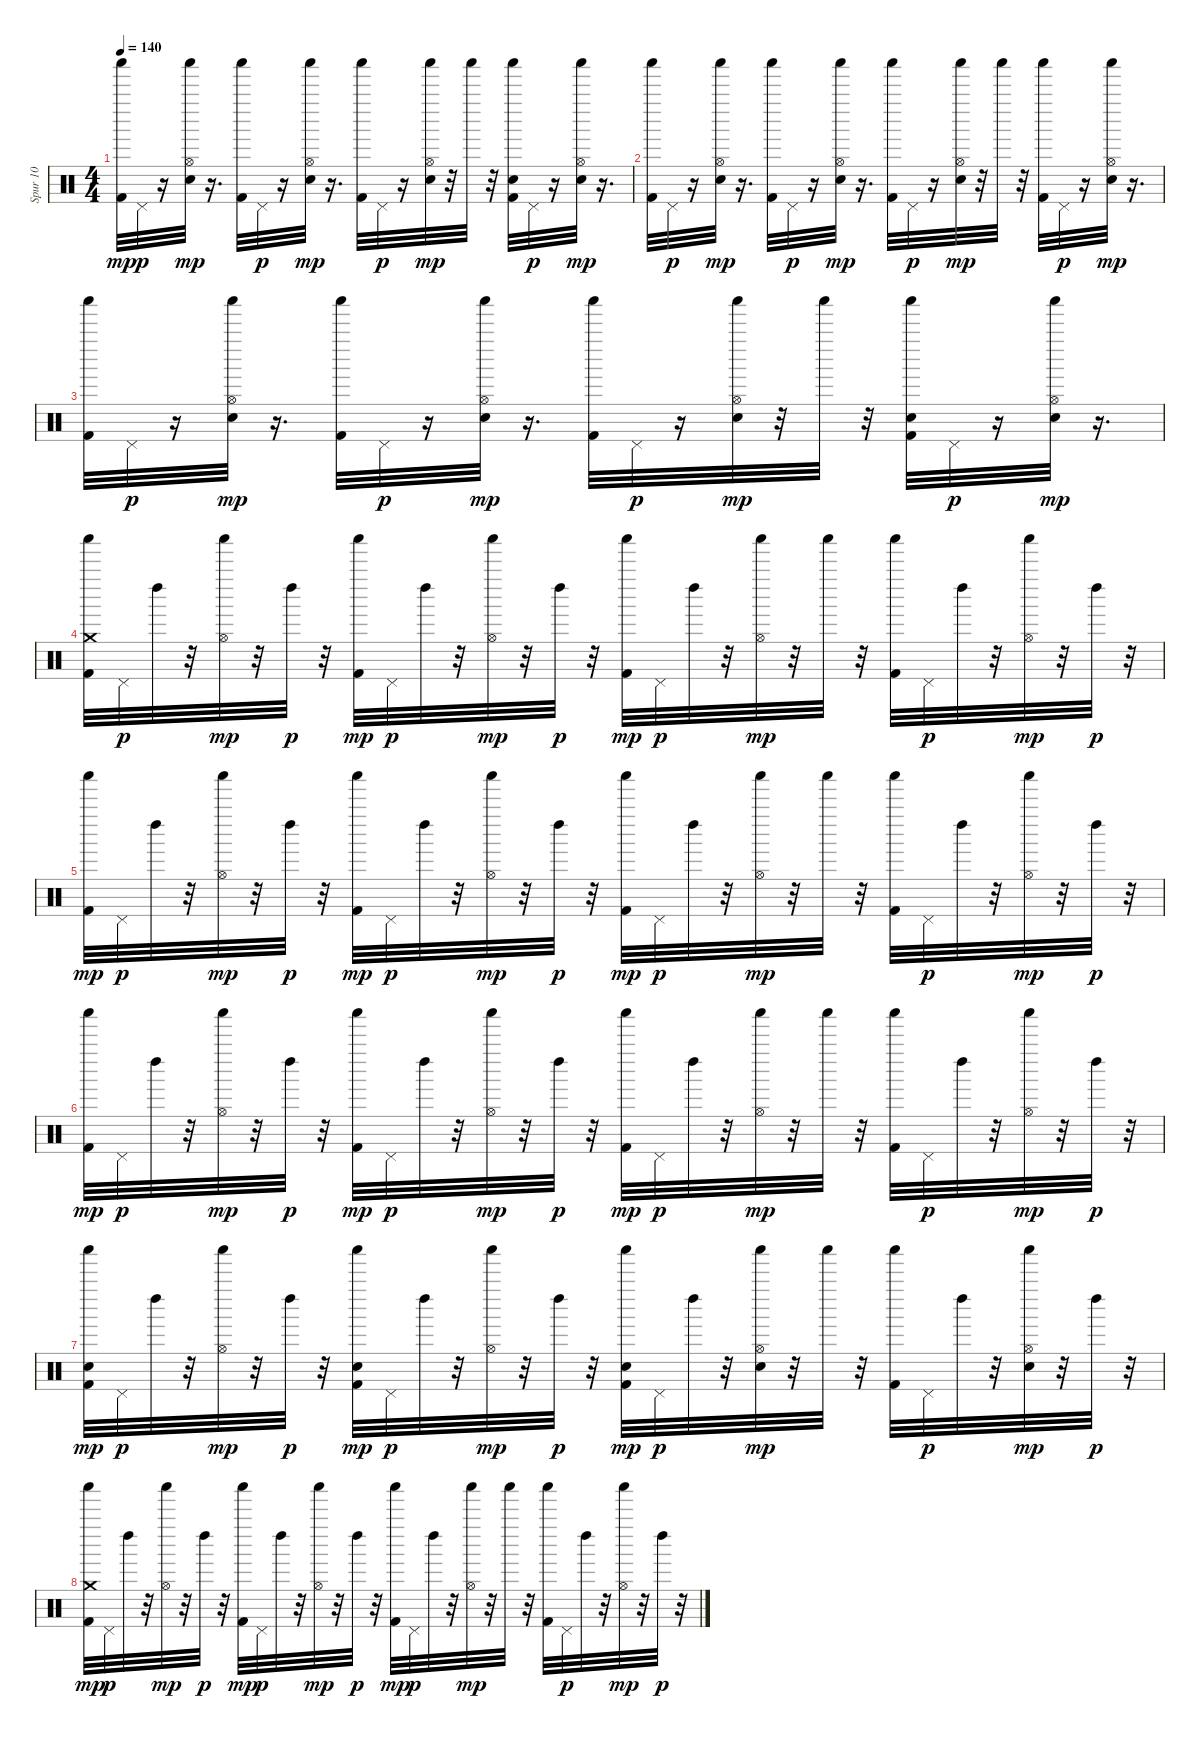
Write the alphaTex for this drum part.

\track ("Spur 10" "Spur 10") {instrument percussion}
\staff {score}
\articulation defaults
\ts (4 4)
\tempo 140
\clef neutral
\ks c
("Kick (hit) 2" "Shaker (hit)").32{dy mp} "Pedal Hi-Hat (hit)".32{dy p} r.16 ("Hand Clap (hit)" "Hi-Hat (open)" "Shaker (hit)").32{dy mp} r.16{d} ("Kick (hit) 2" "Shaker (hit)").32 "Pedal Hi-Hat (hit)".32{dy p} r.16 ("Hand Clap (hit)" "Hi-Hat (open)" "Shaker (hit)").32{dy mp} r.16{d} ("Kick (hit) 2" "Shaker (hit)").32 "Pedal Hi-Hat (hit)".32{dy p} r.16 ("Hand Clap (hit)" "Hi-Hat (open)" "Shaker (hit)").32{dy mp} r.32 "Shaker (hit)".32 r.32 ("Kick (hit) 2" "Hand Clap (hit)" "Shaker (hit)").32 "Pedal Hi-Hat (hit)".32{dy p} r.16 ("Hand Clap (hit)" "Hi-Hat (open)" "Shaker (hit)").32{dy mp} r.16{d} |
("Kick (hit) 2" "Shaker (hit)").32 "Pedal Hi-Hat (hit)".32{dy p} r.16 ("Hand Clap (hit)" "Hi-Hat (open)" "Shaker (hit)").32{dy mp} r.16{d} ("Kick (hit) 2" "Shaker (hit)").32 "Pedal Hi-Hat (hit)".32{dy p} r.16 ("Hand Clap (hit)" "Hi-Hat (open)" "Shaker (hit)").32{dy mp} r.16{d} ("Kick (hit) 2" "Shaker (hit)").32 "Pedal Hi-Hat (hit)".32{dy p} r.16 ("Hand Clap (hit)" "Hi-Hat (open)" "Shaker (hit)").32{dy mp} r.32 "Shaker (hit)".32 r.32 ("Kick (hit) 2" "Shaker (hit)").32 "Pedal Hi-Hat (hit)".32{dy p} r.16 ("Hand Clap (hit)" "Hi-Hat (open)" "Shaker (hit)").32{dy mp} r.16{d} |
("Kick (hit) 2" "Shaker (hit)").32 "Pedal Hi-Hat (hit)".32{dy p} r.16 ("Hand Clap (hit)" "Hi-Hat (open)" "Shaker (hit)").32{dy mp} r.16{d} ("Kick (hit) 2" "Shaker (hit)").32 "Pedal Hi-Hat (hit)".32{dy p} r.16 ("Hand Clap (hit)" "Hi-Hat (open)" "Shaker (hit)").32{dy mp} r.16{d} ("Kick (hit) 2" "Shaker (hit)").32 "Pedal Hi-Hat (hit)".32{dy p} r.16 ("Hand Clap (hit)" "Hi-Hat (open)" "Shaker (hit)").32{dy mp} r.32 "Shaker (hit)".32 r.32 ("Kick (hit) 2" "Hand Clap (hit)" "Shaker (hit)").32 "Pedal Hi-Hat (hit)".32{dy p} r.16 ("Hand Clap (hit)" "Hi-Hat (open)" "Shaker (hit)").32{dy mp} r.16{d} |
("Kick (hit) 2" "Shaker (hit)" "Crash medium (hit)").32 "Pedal Hi-Hat (hit)".32{dy p} "Left Maraca (hit)".32 r.32 ("Hi-Hat (open)" "Shaker (hit)").32{dy mp} r.32 "Left Maraca (hit)".32{dy p} r.32 ("Kick (hit) 2" "Shaker (hit)").32{dy mp} "Pedal Hi-Hat (hit)".32{dy p} "Left Maraca (hit)".32 r.32 ("Hi-Hat (open)" "Shaker (hit)").32{dy mp} r.32 "Left Maraca (hit)".32{dy p} r.32 ("Kick (hit) 2" "Shaker (hit)").32{dy mp} "Pedal Hi-Hat (hit)".32{dy p} "Left Maraca (hit)".32 r.32 ("Hi-Hat (open)" "Shaker (hit)").32{dy mp} r.32 "Shaker (hit)".32 r.32 ("Kick (hit) 2" "Shaker (hit)").32 "Pedal Hi-Hat (hit)".32{dy p} "Left Maraca (hit)".32 r.32 ("Hi-Hat (open)" "Shaker (hit)").32{dy mp} r.32 "Left Maraca (hit)".32{dy p} r.32 |
("Kick (hit) 2" "Shaker (hit)").32{dy mp} "Pedal Hi-Hat (hit)".32{dy p} "Left Maraca (hit)".32 r.32 ("Hi-Hat (open)" "Shaker (hit)").32{dy mp} r.32 "Left Maraca (hit)".32{dy p} r.32 ("Kick (hit) 2" "Shaker (hit)").32{dy mp} "Pedal Hi-Hat (hit)".32{dy p} "Left Maraca (hit)".32 r.32 ("Hi-Hat (open)" "Shaker (hit)").32{dy mp} r.32 "Left Maraca (hit)".32{dy p} r.32 ("Kick (hit) 2" "Shaker (hit)").32{dy mp} "Pedal Hi-Hat (hit)".32{dy p} "Left Maraca (hit)".32 r.32 ("Hi-Hat (open)" "Shaker (hit)").32{dy mp} r.32 "Shaker (hit)".32 r.32 ("Kick (hit) 2" "Shaker (hit)").32 "Pedal Hi-Hat (hit)".32{dy p} "Left Maraca (hit)".32 r.32 ("Hi-Hat (open)" "Shaker (hit)").32{dy mp} r.32 "Left Maraca (hit)".32{dy p} r.32 |
("Kick (hit) 2" "Shaker (hit)").32{dy mp} "Pedal Hi-Hat (hit)".32{dy p} "Left Maraca (hit)".32 r.32 ("Hi-Hat (open)" "Shaker (hit)").32{dy mp} r.32 "Left Maraca (hit)".32{dy p} r.32 ("Kick (hit) 2" "Shaker (hit)").32{dy mp} "Pedal Hi-Hat (hit)".32{dy p} "Left Maraca (hit)".32 r.32 ("Hi-Hat (open)" "Shaker (hit)").32{dy mp} r.32 "Left Maraca (hit)".32{dy p} r.32 ("Kick (hit) 2" "Shaker (hit)").32{dy mp} "Pedal Hi-Hat (hit)".32{dy p} "Left Maraca (hit)".32 r.32 ("Hi-Hat (open)" "Shaker (hit)").32{dy mp} r.32 "Shaker (hit)".32 r.32 ("Kick (hit) 2" "Shaker (hit)").32 "Pedal Hi-Hat (hit)".32{dy p} "Left Maraca (hit)".32 r.32 ("Hi-Hat (open)" "Shaker (hit)").32{dy mp} r.32 "Left Maraca (hit)".32{dy p} r.32 |
("Kick (hit) 2" "Electric Snare (hit)" "Shaker (hit)").32{dy mp} "Pedal Hi-Hat (hit)".32{dy p} "Left Maraca (hit)".32 r.32 ("Hi-Hat (open)" "Shaker (hit)").32{dy mp} r.32 "Left Maraca (hit)".32{dy p} r.32 ("Kick (hit) 2" "Electric Snare (hit)" "Shaker (hit)").32{dy mp} "Pedal Hi-Hat (hit)".32{dy p} "Left Maraca (hit)".32 r.32 ("Hi-Hat (open)" "Shaker (hit)").32{dy mp} r.32 "Left Maraca (hit)".32{dy p} r.32 ("Kick (hit) 2" "Electric Snare (hit)" "Shaker (hit)").32{dy mp} "Pedal Hi-Hat (hit)".32{dy p} "Left Maraca (hit)".32 r.32 ("Electric Snare (hit)" "Hi-Hat (open)" "Shaker (hit)").32{dy mp} r.32 "Shaker (hit)".32 r.32 ("Kick (hit) 2" "Shaker (hit)").32 "Pedal Hi-Hat (hit)".32{dy p} "Left Maraca (hit)".32 r.32 ("Electric Snare (hit)" "Hi-Hat (open)" "Shaker (hit)").32{dy mp} r.32 "Left Maraca (hit)".32{dy p} r.32 |
("Kick (hit) 2" "Shaker (hit)" "Crash medium (hit)").32{dy mp} "Pedal Hi-Hat (hit)".32{dy p} "Left Maraca (hit)".32 r.32 ("Hi-Hat (open)" "Shaker (hit)").32{dy mp} r.32 "Left Maraca (hit)".32{dy p} r.32 ("Kick (hit) 2" "Shaker (hit)").32{dy mp} "Pedal Hi-Hat (hit)".32{dy p} "Left Maraca (hit)".32 r.32 ("Hi-Hat (open)" "Shaker (hit)").32{dy mp} r.32 "Left Maraca (hit)".32{dy p} r.32 ("Kick (hit) 2" "Shaker (hit)").32{dy mp} "Pedal Hi-Hat (hit)".32{dy p} "Left Maraca (hit)".32 r.32 ("Hi-Hat (open)" "Shaker (hit)").32{dy mp} r.32 "Shaker (hit)".32 r.32 ("Kick (hit) 2" "Shaker (hit)").32 "Pedal Hi-Hat (hit)".32{dy p} "Left Maraca (hit)".32 r.32 ("Hi-Hat (open)" "Shaker (hit)").32{dy mp} r.32 "Left Maraca (hit)".32{dy p} r.32
